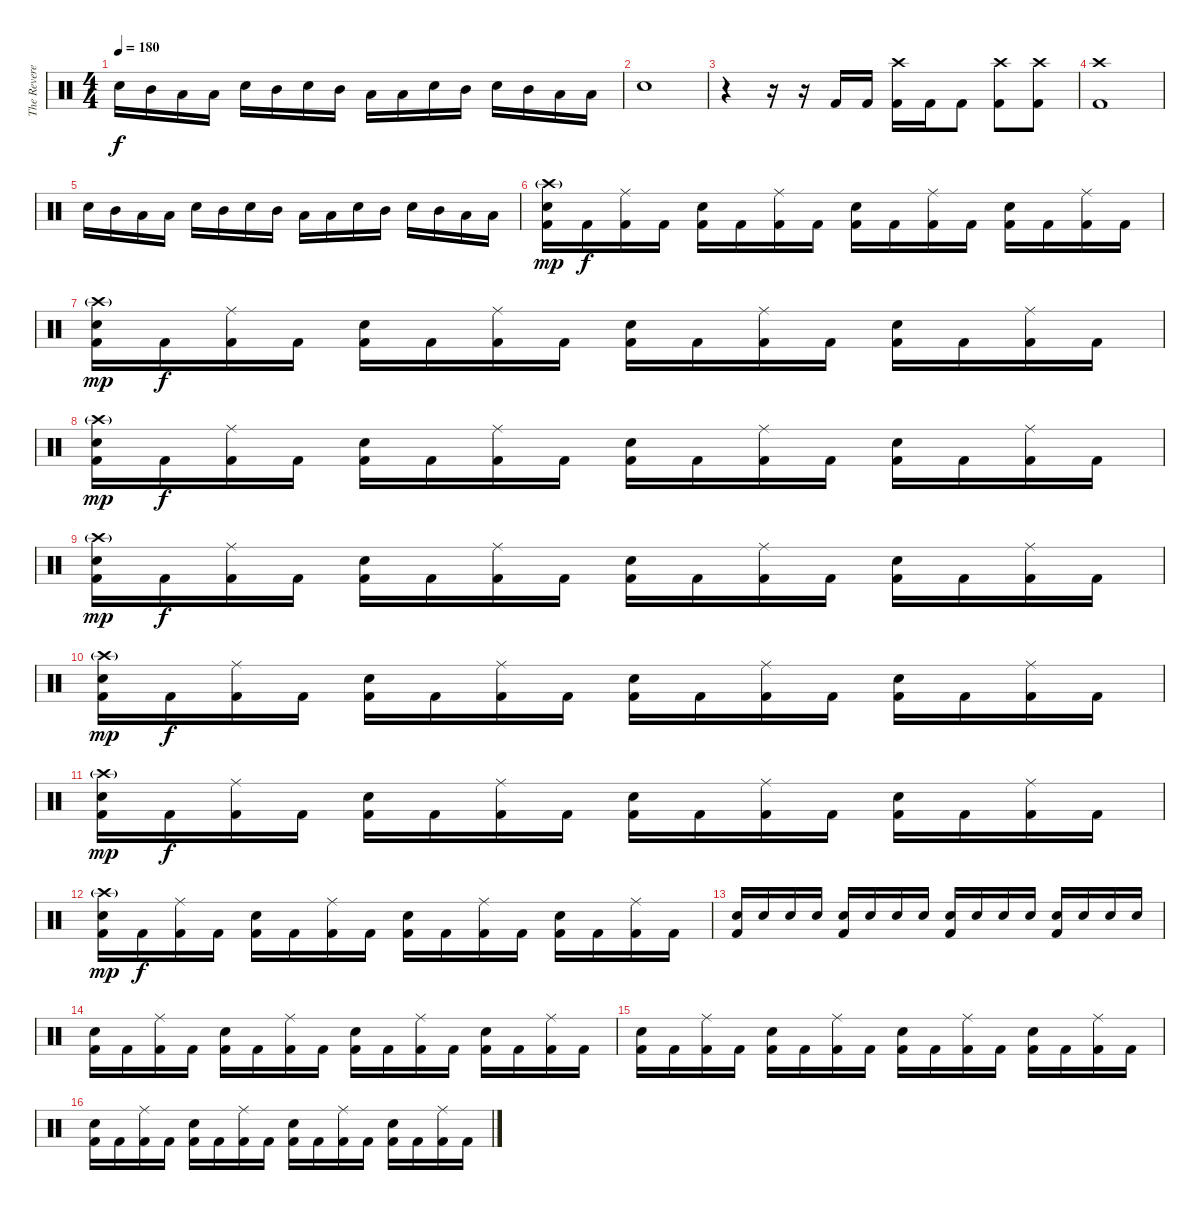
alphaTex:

\track ("The Reverend" "The Revere") {instrument percussion}
\staff {score}
\articulation defaults
\ts (4 4)
\tempo 180
\clef neutral
\ks c "Snare (hit) 2".16{dy f} "Mid Tom (hit)".16 "Low Tom (hit)".16 "Low Floor Tom (hit)".16 "Snare (hit) 2".16 "Mid Tom (hit)".16 "Snare (hit) 2".16 "Mid Tom (hit)".16 "Low Tom (hit)".16 "Low Floor Tom (hit)".16 "Snare (hit) 2".16 "Mid Tom (hit)".16 "Snare (hit) 2".16 "Mid Tom (hit)".16 "Low Tom (hit)".16 "Low Floor Tom (hit)".16
|
"Snare (hit) 2".1 |
r.4 r.16 r.16 "Kick (hit) 2".16 "Kick (hit) 2".16 ("Crash high (hit)" "Kick (hit) 2").16 "Kick (hit) 2".16 "Kick (hit) 2".8 ("Crash high (hit)" "Kick (hit) 2").8 ("Crash high (hit)" "Kick (hit) 2").8 |
("Crash high (hit)" "Kick (hit) 2").1 |
"Snare (hit) 2".16 "Mid Tom (hit)".16 "Low Tom (hit)".16 "Low Floor Tom (hit)".16 "Snare (hit) 2".16 "Mid Tom (hit)".16 "Snare (hit) 2".16 "Mid Tom (hit)".16 "Low Tom (hit)".16 "Low Floor Tom (hit)".16 "Snare (hit) 2".16 "Mid Tom (hit)".16 "Snare (hit) 2".16 "Mid Tom (hit)".16 "Low Tom (hit)".16 "Low Floor Tom (hit)".16 |
("Crash high (hit)"{g} "Snare (hit) 2" "Kick (hit) 2").16{dy mp} "Kick (hit) 2".16{dy f} ("Ride (middle)" "Kick (hit) 2").16 "Kick (hit) 2".16 ("Snare (hit) 2" "Kick (hit) 2").16 "Kick (hit) 2".16 ("Ride (middle)" "Kick (hit) 2").16 "Kick (hit) 2".16 ("Snare (hit) 2" "Kick (hit) 2").16 "Kick (hit) 2".16 ("Ride (middle)" "Kick (hit) 2").16 "Kick (hit) 2".16 ("Snare (hit) 2" "Kick (hit) 2").16 "Kick (hit) 2".16 ("Ride (middle)" "Kick (hit) 2").16 "Kick (hit) 2".16 |
("Crash high (hit)"{g} "Snare (hit) 2" "Kick (hit) 2").16{dy mp} "Kick (hit) 2".16{dy f} ("Ride (middle)" "Kick (hit) 2").16 "Kick (hit) 2".16 ("Snare (hit) 2" "Kick (hit) 2").16 "Kick (hit) 2".16 ("Ride (middle)" "Kick (hit) 2").16 "Kick (hit) 2".16 ("Snare (hit) 2" "Kick (hit) 2").16 "Kick (hit) 2".16 ("Ride (middle)" "Kick (hit) 2").16 "Kick (hit) 2".16 ("Snare (hit) 2" "Kick (hit) 2").16 "Kick (hit) 2".16 ("Ride (middle)" "Kick (hit) 2").16 "Kick (hit) 2".16 |
("Crash high (hit)"{g} "Snare (hit) 2" "Kick (hit) 2").16{dy mp} "Kick (hit) 2".16{dy f} ("Ride (middle)" "Kick (hit) 2").16 "Kick (hit) 2".16 ("Snare (hit) 2" "Kick (hit) 2").16 "Kick (hit) 2".16 ("Ride (middle)" "Kick (hit) 2").16 "Kick (hit) 2".16 ("Snare (hit) 2" "Kick (hit) 2").16 "Kick (hit) 2".16 ("Ride (middle)" "Kick (hit) 2").16 "Kick (hit) 2".16 ("Snare (hit) 2" "Kick (hit) 2").16 "Kick (hit) 2".16 ("Ride (middle)" "Kick (hit) 2").16 "Kick (hit) 2".16 |
("Crash high (hit)"{g} "Snare (hit) 2" "Kick (hit) 2").16{dy mp} "Kick (hit) 2".16{dy f} ("Ride (middle)" "Kick (hit) 2").16 "Kick (hit) 2".16 ("Snare (hit) 2" "Kick (hit) 2").16 "Kick (hit) 2".16 ("Ride (middle)" "Kick (hit) 2").16 "Kick (hit) 2".16 ("Snare (hit) 2" "Kick (hit) 2").16 "Kick (hit) 2".16 ("Ride (middle)" "Kick (hit) 2").16 "Kick (hit) 2".16 ("Snare (hit) 2" "Kick (hit) 2").16 "Kick (hit) 2".16 ("Ride (middle)" "Kick (hit) 2").16 "Kick (hit) 2".16 |
("Crash high (hit)"{g} "Snare (hit) 2" "Kick (hit) 2").16{dy mp} "Kick (hit) 2".16{dy f} ("Ride (middle)" "Kick (hit) 2").16 "Kick (hit) 2".16 ("Snare (hit) 2" "Kick (hit) 2").16 "Kick (hit) 2".16 ("Ride (middle)" "Kick (hit) 2").16 "Kick (hit) 2".16 ("Snare (hit) 2" "Kick (hit) 2").16 "Kick (hit) 2".16 ("Ride (middle)" "Kick (hit) 2").16 "Kick (hit) 2".16 ("Snare (hit) 2" "Kick (hit) 2").16 "Kick (hit) 2".16 ("Ride (middle)" "Kick (hit) 2").16 "Kick (hit) 2".16 |
("Crash high (hit)"{g} "Snare (hit) 2" "Kick (hit) 2").16{dy mp} "Kick (hit) 2".16{dy f} ("Ride (middle)" "Kick (hit) 2").16 "Kick (hit) 2".16 ("Snare (hit) 2" "Kick (hit) 2").16 "Kick (hit) 2".16 ("Ride (middle)" "Kick (hit) 2").16 "Kick (hit) 2".16 ("Snare (hit) 2" "Kick (hit) 2").16 "Kick (hit) 2".16 ("Ride (middle)" "Kick (hit) 2").16 "Kick (hit) 2".16 ("Snare (hit) 2" "Kick (hit) 2").16 "Kick (hit) 2".16 ("Ride (middle)" "Kick (hit) 2").16 "Kick (hit) 2".16 |
("Crash high (hit)"{g} "Snare (hit) 2" "Kick (hit) 2").16{dy mp} "Kick (hit) 2".16{dy f} ("Ride (middle)" "Kick (hit) 2").16 "Kick (hit) 2".16 ("Snare (hit) 2" "Kick (hit) 2").16 "Kick (hit) 2".16 ("Ride (middle)" "Kick (hit) 2").16 "Kick (hit) 2".16 ("Snare (hit) 2" "Kick (hit) 2").16 "Kick (hit) 2".16 ("Ride (middle)" "Kick (hit) 2").16 "Kick (hit) 2".16 ("Snare (hit) 2" "Kick (hit) 2").16 "Kick (hit) 2".16 ("Ride (middle)" "Kick (hit) 2").16 "Kick (hit) 2".16 |
("Kick (hit) 2" "Snare (hit) 2").16 "Snare (hit) 2".16 "Snare (hit) 2".16 "Snare (hit) 2".16 ("Kick (hit) 2" "Snare (hit) 2").16 "Snare (hit) 2".16 "Snare (hit) 2".16 "Snare (hit) 2".16 ("Kick (hit) 2" "Snare (hit) 2").16 "Snare (hit) 2".16 "Snare (hit) 2".16 "Snare (hit) 2".16 ("Kick (hit) 2" "Snare (hit) 2").16 "Snare (hit) 2".16 "Snare (hit) 2".16 "Snare (hit) 2".16 |
("Snare (hit) 2" "Kick (hit) 2").16 "Kick (hit) 2".16 ("Ride (middle)" "Kick (hit) 2").16 "Kick (hit) 2".16 ("Snare (hit) 2" "Kick (hit) 2").16 "Kick (hit) 2".16 ("Ride (middle)" "Kick (hit) 2").16 "Kick (hit) 2".16 ("Snare (hit) 2" "Kick (hit) 2").16 "Kick (hit) 2".16 ("Ride (middle)" "Kick (hit) 2").16 "Kick (hit) 2".16 ("Snare (hit) 2" "Kick (hit) 2").16 "Kick (hit) 2".16 ("Ride (middle)" "Kick (hit) 2").16 "Kick (hit) 2".16 |
("Snare (hit) 2" "Kick (hit) 2").16 "Kick (hit) 2".16 ("Ride (middle)" "Kick (hit) 2").16 "Kick (hit) 2".16 ("Snare (hit) 2" "Kick (hit) 2").16 "Kick (hit) 2".16 ("Ride (middle)" "Kick (hit) 2").16 "Kick (hit) 2".16 ("Snare (hit) 2" "Kick (hit) 2").16 "Kick (hit) 2".16 ("Ride (middle)" "Kick (hit) 2").16 "Kick (hit) 2".16 ("Snare (hit) 2" "Kick (hit) 2").16 "Kick (hit) 2".16 ("Ride (middle)" "Kick (hit) 2").16 "Kick (hit) 2".16 |
("Snare (hit) 2" "Kick (hit) 2").16 "Kick (hit) 2".16 ("Ride (middle)" "Kick (hit) 2").16 "Kick (hit) 2".16 ("Snare (hit) 2" "Kick (hit) 2").16 "Kick (hit) 2".16 ("Ride (middle)" "Kick (hit) 2").16 "Kick (hit) 2".16 ("Snare (hit) 2" "Kick (hit) 2").16 "Kick (hit) 2".16 ("Ride (middle)" "Kick (hit) 2").16 "Kick (hit) 2".16 ("Snare (hit) 2" "Kick (hit) 2").16 "Kick (hit) 2".16 ("Ride (middle)" "Kick (hit) 2").16 "Kick (hit) 2".16
